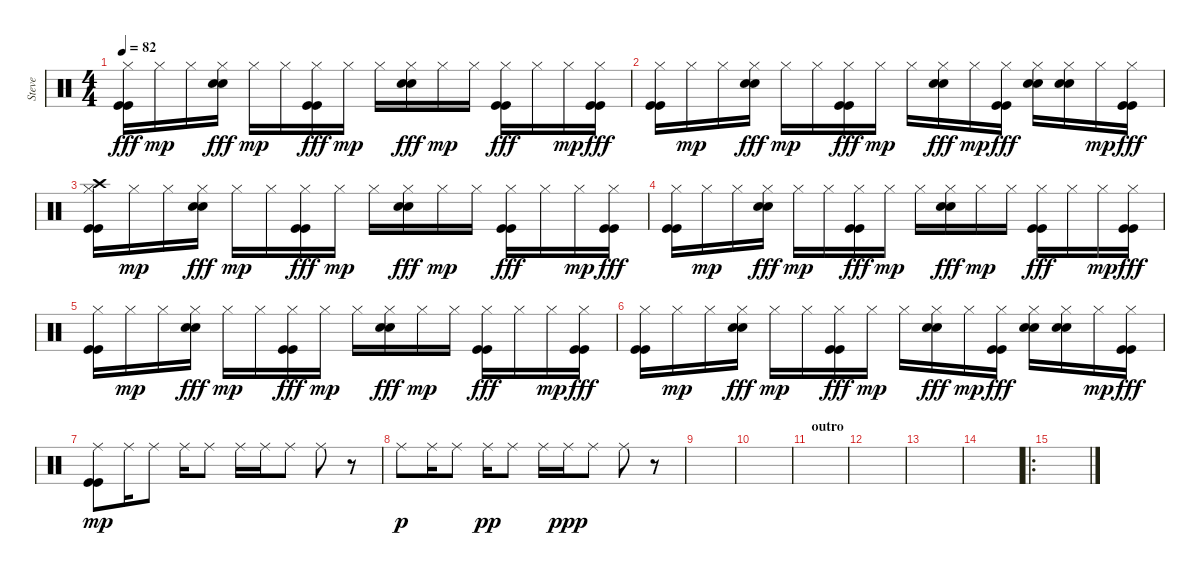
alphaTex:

\track ("Steve" "Steve") {instrument percussion}
\staff {score}
\articulation defaults
\ts (4 4)
\tempo 82
\clef neutral
\ks c
("Hi-Hat (closed)" "Kick (hit)" "Kick (hit)").16{dy fff} "Hi-Hat (closed)".16{dy mp} "Hi-Hat (closed)".16 ("Hi-Hat (closed)" "Snare (hit) 2" "Snare (hit) 2").16{dy fff} "Hi-Hat (closed)".16{dy mp} "Hi-Hat (closed)".16 ("Hi-Hat (closed)" "Kick (hit)" "Kick (hit)").16{dy fff} "Hi-Hat (closed)".16{dy mp} "Hi-Hat (closed)".16 ("Hi-Hat (closed)" "Snare (hit) 2" "Snare (hit) 2").16{dy fff} "Hi-Hat (closed)".16{dy mp} "Hi-Hat (closed)".16 ("Hi-Hat (closed)" "Kick (hit)" "Kick (hit)").16{dy fff} "Hi-Hat (closed)".16 "Hi-Hat (closed)".16{dy mp} ("Hi-Hat (closed)" "Kick (hit)" "Kick (hit)").16{dy fff} |
("Hi-Hat (closed)" "Kick (hit)" "Kick (hit)").16 "Hi-Hat (closed)".16{dy mp} "Hi-Hat (closed)".16 ("Hi-Hat (closed)" "Snare (hit) 2" "Snare (hit) 2").16{dy fff} "Hi-Hat (closed)".16{dy mp} "Hi-Hat (closed)".16 ("Hi-Hat (closed)" "Kick (hit)" "Kick (hit)").16{dy fff} "Hi-Hat (closed)".16{dy mp} "Hi-Hat (closed)".16 ("Hi-Hat (closed)" "Snare (hit) 2" "Snare (hit) 2").16{dy fff} "Hi-Hat (closed)".16{dy mp} ("Hi-Hat (closed)" "Kick (hit)" "Kick (hit)").16{dy fff} ("Hi-Hat (closed)" "Snare (hit) 2" "Snare (hit) 2").16 ("Hi-Hat (closed)" "Snare (hit) 2" "Snare (hit) 2").16 "Hi-Hat (closed)".16{dy mp} ("Hi-Hat (closed)" "Kick (hit)" "Kick (hit)").16{dy fff} |
("Crash high (hit)" "Hi-Hat (closed)" "Kick (hit)" "Kick (hit)").16 "Hi-Hat (closed)".16{dy mp} "Hi-Hat (closed)".16 ("Hi-Hat (closed)" "Snare (hit) 2" "Snare (hit) 2").16{dy fff} "Hi-Hat (closed)".16{dy mp} "Hi-Hat (closed)".16 ("Hi-Hat (closed)" "Kick (hit)" "Kick (hit)").16{dy fff} "Hi-Hat (closed)".16{dy mp} "Hi-Hat (closed)".16 ("Hi-Hat (closed)" "Snare (hit) 2" "Snare (hit) 2").16{dy fff} "Hi-Hat (closed)".16{dy mp} "Hi-Hat (closed)".16 ("Hi-Hat (closed)" "Kick (hit)" "Kick (hit)").16{dy fff} "Hi-Hat (closed)".16 "Hi-Hat (closed)".16{dy mp} ("Hi-Hat (closed)" "Kick (hit)" "Kick (hit)").16{dy fff} |
("Hi-Hat (closed)" "Kick (hit)" "Kick (hit)").16 "Hi-Hat (closed)".16{dy mp} "Hi-Hat (closed)".16 ("Hi-Hat (closed)" "Snare (hit) 2" "Snare (hit) 2").16{dy fff} "Hi-Hat (closed)".16{dy mp} "Hi-Hat (closed)".16 ("Hi-Hat (closed)" "Kick (hit)" "Kick (hit)").16{dy fff} "Hi-Hat (closed)".16{dy mp} "Hi-Hat (closed)".16 ("Hi-Hat (closed)" "Snare (hit) 2" "Snare (hit) 2").16{dy fff} "Hi-Hat (closed)".16{dy mp} "Hi-Hat (closed)".16 ("Hi-Hat (closed)" "Kick (hit)" "Kick (hit)").16{dy fff} "Hi-Hat (closed)".16 "Hi-Hat (closed)".16{dy mp} ("Hi-Hat (closed)" "Kick (hit)" "Kick (hit)").16{dy fff} |
("Hi-Hat (closed)" "Kick (hit)" "Kick (hit)").16 "Hi-Hat (closed)".16{dy mp} "Hi-Hat (closed)".16 ("Hi-Hat (closed)" "Snare (hit) 2" "Snare (hit) 2").16{dy fff} "Hi-Hat (closed)".16{dy mp} "Hi-Hat (closed)".16 ("Hi-Hat (closed)" "Kick (hit)" "Kick (hit)").16{dy fff} "Hi-Hat (closed)".16{dy mp} "Hi-Hat (closed)".16 ("Hi-Hat (closed)" "Snare (hit) 2" "Snare (hit) 2").16{dy fff} "Hi-Hat (closed)".16{dy mp} "Hi-Hat (closed)".16 ("Hi-Hat (closed)" "Kick (hit)" "Kick (hit)").16{dy fff} "Hi-Hat (closed)".16 "Hi-Hat (closed)".16{dy mp} ("Hi-Hat (closed)" "Kick (hit)" "Kick (hit)").16{dy fff} |
("Hi-Hat (closed)" "Kick (hit)" "Kick (hit)").16 "Hi-Hat (closed)".16{dy mp} "Hi-Hat (closed)".16 ("Hi-Hat (closed)" "Snare (hit) 2" "Snare (hit) 2").16{dy fff} "Hi-Hat (closed)".16{dy mp} "Hi-Hat (closed)".16 ("Hi-Hat (closed)" "Kick (hit)" "Kick (hit)").16{dy fff} "Hi-Hat (closed)".16{dy mp} "Hi-Hat (closed)".16 ("Hi-Hat (closed)" "Snare (hit) 2" "Snare (hit) 2").16{dy fff} "Hi-Hat (closed)".16{dy mp} ("Hi-Hat (closed)" "Kick (hit)" "Kick (hit)").16{dy fff} ("Hi-Hat (closed)" "Snare (hit) 2" "Snare (hit) 2").16 ("Hi-Hat (closed)" "Snare (hit) 2" "Snare (hit) 2").16 "Hi-Hat (closed)".16{dy mp} ("Hi-Hat (closed)" "Kick (hit)" "Kick (hit)").16{dy fff} |
("Ride (middle)" "Kick (hit)" "Kick (hit)").8{dy mp} "Ride (middle)".16 "Ride (middle)".8 "Ride (middle)".16 "Ride (middle)".8 "Ride (middle)".16 "Ride (middle)".16 "Ride (middle)".8 "Ride (middle)".8 r.8 |
"Ride (middle)".8{dy p} "Ride (middle)".16 "Ride (middle)".8 "Ride (middle)".16{dy pp} "Ride (middle)".8 "Ride (middle)".16 "Ride (middle)".16{dy ppp} "Ride (middle)".8 "Ride (middle)".8 r.8 |
|
|
\section ("" "outro")
|
|
|
|
\ro
